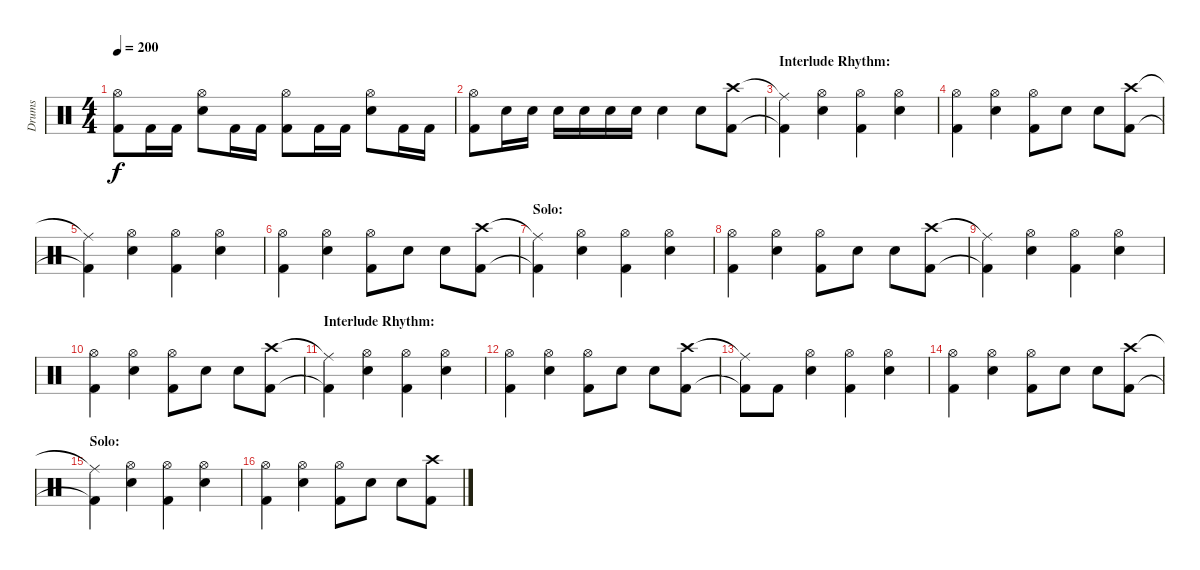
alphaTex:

\track ("Drums" "Drums") {instrument percussion}
\staff {score}
\articulation defaults
\ts (4 4)
\tempo 200
\clef neutral
\ks c
("Hi-Hat (open)"{t} "Kick (hit) 2"{t}).8{dy f} "Kick (hit) 2".16 "Kick (hit) 2".16 ("Hi-Hat (open)" "Electric Snare (hit)").8 "Kick (hit) 2".16 "Kick (hit) 2".16 ("Hi-Hat (open)" "Kick (hit) 2").8 "Kick (hit) 2".16 "Kick (hit) 2".16 ("Hi-Hat (open)" "Electric Snare (hit)").8 "Kick (hit) 2".16 "Kick (hit) 2".16 |
("Hi-Hat (open)" "Kick (hit) 2").8 "Electric Snare (hit)".16 "Electric Snare (hit)".16 "Electric Snare (hit)".16 "Electric Snare (hit)".16 "Electric Snare (hit)".16 "Electric Snare (hit)".16 "Electric Snare (hit)".4 "Electric Snare (hit)".8 ("Crash high (hit)" "Kick (hit) 2").8 |
\section ("" "Interlude Rhythm:")
("Ride (middle)"{t} "Kick (hit) 2"{t}).4 ("Hi-Hat (open)" "Electric Snare (hit)").4 ("Hi-Hat (open)" "Kick (hit) 2").4 ("Hi-Hat (open)" "Electric Snare (hit)").4 |
("Hi-Hat (open)" "Kick (hit) 2").4 ("Hi-Hat (open)" "Electric Snare (hit)").4 ("Hi-Hat (open)" "Kick (hit) 2").8 "Electric Snare (hit)".8 "Electric Snare (hit)".8 ("Crash high (hit)" "Kick (hit) 2").8 |
("Ride (middle)"{t} "Kick (hit) 2"{t}).4 ("Hi-Hat (open)" "Electric Snare (hit)").4 ("Hi-Hat (open)" "Kick (hit) 2").4 ("Hi-Hat (open)" "Electric Snare (hit)").4 |
("Hi-Hat (open)" "Kick (hit) 2").4 ("Hi-Hat (open)" "Electric Snare (hit)").4 ("Hi-Hat (open)" "Kick (hit) 2").8 "Electric Snare (hit)".8 "Electric Snare (hit)".8 ("Crash high (hit)" "Kick (hit) 2").8 |
\section ("" "Solo:")
("Ride (middle)"{t} "Kick (hit) 2"{t}).4 ("Hi-Hat (open)" "Electric Snare (hit)").4 ("Hi-Hat (open)" "Kick (hit) 2").4 ("Hi-Hat (open)" "Electric Snare (hit)").4 |
("Hi-Hat (open)" "Kick (hit) 2").4 ("Hi-Hat (open)" "Electric Snare (hit)").4 ("Hi-Hat (open)" "Kick (hit) 2").8 "Electric Snare (hit)".8 "Electric Snare (hit)".8 ("Crash high (hit)" "Kick (hit) 2").8 |
("Ride (middle)"{t} "Kick (hit) 2"{t}).4 ("Hi-Hat (open)" "Electric Snare (hit)").4 ("Hi-Hat (open)" "Kick (hit) 2").4 ("Hi-Hat (open)" "Electric Snare (hit)").4 |
("Hi-Hat (open)" "Kick (hit) 2").4 ("Hi-Hat (open)" "Electric Snare (hit)").4 ("Hi-Hat (open)" "Kick (hit) 2").8 "Electric Snare (hit)".8 "Electric Snare (hit)".8 ("Crash high (hit)" "Kick (hit) 2").8 |
\section ("" "Interlude Rhythm:")
("Ride (middle)"{t} "Kick (hit) 2"{t}).4 ("Hi-Hat (open)" "Electric Snare (hit)").4 ("Hi-Hat (open)" "Kick (hit) 2").4 ("Hi-Hat (open)" "Electric Snare (hit)").4 |
("Hi-Hat (open)" "Kick (hit) 2").4 ("Hi-Hat (open)" "Electric Snare (hit)").4 ("Hi-Hat (open)" "Kick (hit) 2").8 "Electric Snare (hit)".8 "Electric Snare (hit)".8 ("Crash high (hit)" "Kick (hit) 2").8 |
("Ride (middle)"{t} "Kick (hit) 2"{t}).8 "Kick (hit) 2".8 ("Hi-Hat (open)" "Electric Snare (hit)").4 ("Hi-Hat (open)" "Kick (hit) 2").4 ("Hi-Hat (open)" "Electric Snare (hit)").4 |
("Hi-Hat (open)" "Kick (hit) 2").4 ("Hi-Hat (open)" "Electric Snare (hit)").4 ("Hi-Hat (open)" "Kick (hit) 2").8 "Electric Snare (hit)".8 "Electric Snare (hit)".8 ("Crash high (hit)" "Kick (hit) 2").8 |
\section ("" "Solo:")
("Ride (middle)"{t} "Kick (hit) 2"{t}).4 ("Hi-Hat (open)" "Electric Snare (hit)").4 ("Hi-Hat (open)" "Kick (hit) 2").4 ("Hi-Hat (open)" "Electric Snare (hit)").4 |
("Hi-Hat (open)" "Kick (hit) 2").4 ("Hi-Hat (open)" "Electric Snare (hit)").4 ("Hi-Hat (open)" "Kick (hit) 2").8 "Electric Snare (hit)".8 "Electric Snare (hit)".8 ("Crash high (hit)" "Kick (hit) 2").8
